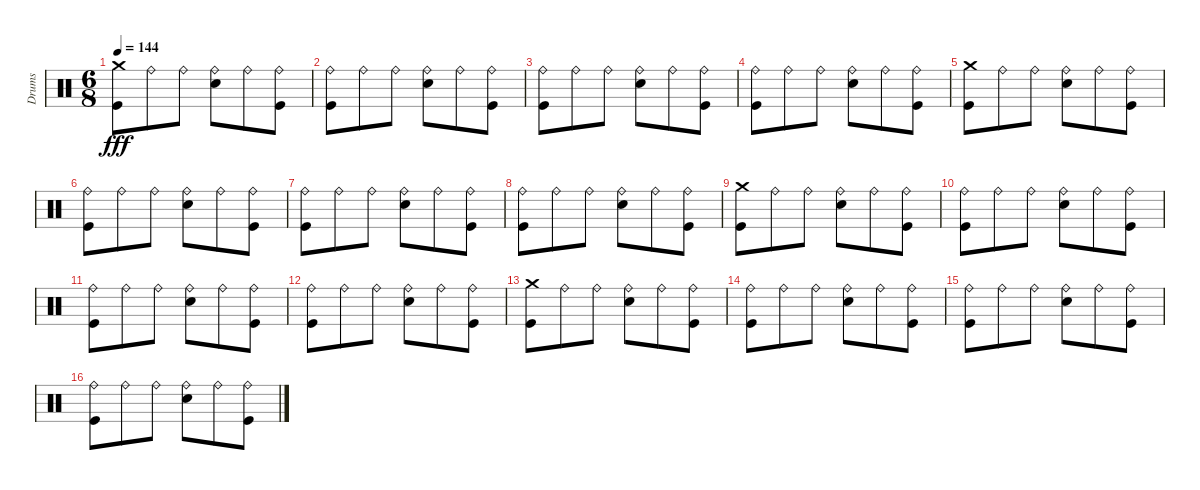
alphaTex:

\track ("Drums" "Drums") {instrument percussion}
\staff {score}
\articulation defaults
\ts (6 8)
\tempo 144
\clef neutral
\ks c
("Crash medium (hit)" "Kick (hit)").8{dy fff} "Ride (bell)".8 "Ride (bell)".8 ("Ride (bell)" "Snare (hit) 2").8 "Ride (bell)".8 ("Ride (bell)" "Kick (hit)").8 |
("Ride (bell)" "Kick (hit)").8 "Ride (bell)".8 "Ride (bell)".8 ("Ride (bell)" "Snare (hit) 2").8 "Ride (bell)".8 ("Ride (bell)" "Kick (hit)").8 |
("Ride (bell)" "Kick (hit)").8 "Ride (bell)".8 "Ride (bell)".8 ("Ride (bell)" "Snare (hit) 2").8 "Ride (bell)".8 ("Ride (bell)" "Kick (hit)").8 |
("Ride (bell)" "Kick (hit)").8 "Ride (bell)".8 "Ride (bell)".8 ("Ride (bell)" "Snare (hit) 2").8 "Ride (bell)".8 ("Ride (bell)" "Kick (hit)").8 |
("Crash medium (hit)" "Kick (hit)").8 "Ride (bell)".8 "Ride (bell)".8 ("Ride (bell)" "Snare (hit) 2").8 "Ride (bell)".8 ("Ride (bell)" "Kick (hit)").8 |
("Ride (bell)" "Kick (hit)").8 "Ride (bell)".8 "Ride (bell)".8 ("Ride (bell)" "Snare (hit) 2").8 "Ride (bell)".8 ("Ride (bell)" "Kick (hit)").8 |
("Ride (bell)" "Kick (hit)").8 "Ride (bell)".8 "Ride (bell)".8 ("Ride (bell)" "Snare (hit) 2").8 "Ride (bell)".8 ("Ride (bell)" "Kick (hit)").8 |
("Ride (bell)" "Kick (hit)").8 "Ride (bell)".8 "Ride (bell)".8 ("Ride (bell)" "Snare (hit) 2").8 "Ride (bell)".8 ("Ride (bell)" "Kick (hit)").8 |
("Crash medium (hit)" "Kick (hit)").8 "Ride (bell)".8 "Ride (bell)".8 ("Ride (bell)" "Snare (hit) 2").8 "Ride (bell)".8 ("Ride (bell)" "Kick (hit)").8 |
("Ride (bell)" "Kick (hit)").8 "Ride (bell)".8 "Ride (bell)".8 ("Ride (bell)" "Snare (hit) 2").8 "Ride (bell)".8 ("Ride (bell)" "Kick (hit)").8 |
("Ride (bell)" "Kick (hit)").8 "Ride (bell)".8 "Ride (bell)".8 ("Ride (bell)" "Snare (hit) 2").8 "Ride (bell)".8 ("Ride (bell)" "Kick (hit)").8 |
("Ride (bell)" "Kick (hit)").8 "Ride (bell)".8 "Ride (bell)".8 ("Ride (bell)" "Snare (hit) 2").8 "Ride (bell)".8 ("Ride (bell)" "Kick (hit)").8 |
("Crash medium (hit)" "Kick (hit)").8 "Ride (bell)".8 "Ride (bell)".8 ("Ride (bell)" "Snare (hit) 2").8 "Ride (bell)".8 ("Ride (bell)" "Kick (hit)").8 |
("Ride (bell)" "Kick (hit)").8 "Ride (bell)".8 "Ride (bell)".8 ("Ride (bell)" "Snare (hit) 2").8 "Ride (bell)".8 ("Ride (bell)" "Kick (hit)").8 |
("Ride (bell)" "Kick (hit)").8 "Ride (bell)".8 "Ride (bell)".8 ("Ride (bell)" "Snare (hit) 2").8 "Ride (bell)".8 ("Ride (bell)" "Kick (hit)").8 |
("Ride (bell)" "Kick (hit)").8 "Ride (bell)".8 "Ride (bell)".8 ("Ride (bell)" "Snare (hit) 2").8 "Ride (bell)".8 ("Ride (bell)" "Kick (hit)").8
